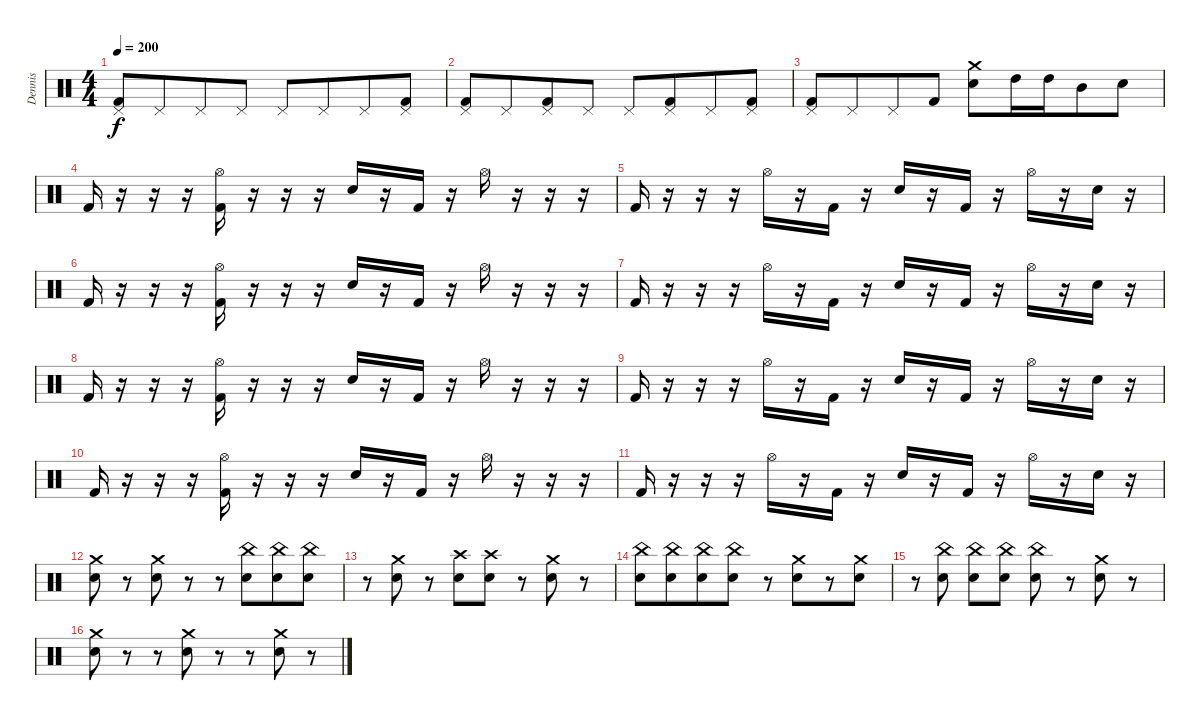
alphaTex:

\track ("Dennis" "Dennis") {instrument percussion}
\staff {score}
\articulation defaults
\ts (4 4)
\tempo 200
\clef neutral
\ks c
("Pedal Hi-Hat (hit)" "Kick (hit) 2").8{dy f} "Pedal Hi-Hat (hit)".8{beam merge} "Pedal Hi-Hat (hit)".8{beam merge} "Pedal Hi-Hat (hit)".8 "Pedal Hi-Hat (hit)".8 "Pedal Hi-Hat (hit)".8{beam merge} "Pedal Hi-Hat (hit)".8{beam merge} ("Pedal Hi-Hat (hit)" "Kick (hit) 2").8 |
("Pedal Hi-Hat (hit)" "Kick (hit) 2").8 "Pedal Hi-Hat (hit)".8{beam merge} ("Pedal Hi-Hat (hit)" "Kick (hit) 2").8{beam merge} "Pedal Hi-Hat (hit)".8 "Pedal Hi-Hat (hit)".8 ("Pedal Hi-Hat (hit)" "Kick (hit) 2").8{beam merge} "Pedal Hi-Hat (hit)".8{beam merge} ("Pedal Hi-Hat (hit)" "Kick (hit) 2").8 |
("Pedal Hi-Hat (hit)" "Kick (hit) 2").8 "Pedal Hi-Hat (hit)".8{beam merge} "Pedal Hi-Hat (hit)".8{beam merge} "Kick (hit) 2".8 ("Crash medium (hit)" "Electric Snare (hit)").8 "High Tom (hit)".16{beam merge} "High Tom (hit)".16{beam merge} "Mid Tom (hit)".8{beam merge} "Electric Snare (hit)".8 |
"Kick (hit) 2".16 r.16 r.16{beam merge} r.16 ("Hi-Hat (open)" "Kick (hit) 2").16 r.16 r.16 r.16 "Electric Snare (hit)".16 r.16 "Kick (hit) 2".16 r.16 "Hi-Hat (open)".16 r.16 r.16 r.16 |
"Kick (hit) 2".16 r.16 r.16{beam merge} r.16 "Hi-Hat (open)".16 r.16 "Kick (hit) 2".16 r.16 "Electric Snare (hit)".16 r.16 "Kick (hit) 2".16 r.16 "Hi-Hat (open)".16 r.16 "Electric Snare (hit)".16 r.16 |
"Kick (hit) 2".16 r.16 r.16{beam merge} r.16 ("Hi-Hat (open)" "Kick (hit) 2").16 r.16 r.16 r.16 "Electric Snare (hit)".16 r.16 "Kick (hit) 2".16 r.16 "Hi-Hat (open)".16 r.16 r.16 r.16 |
"Kick (hit) 2".16 r.16 r.16{beam merge} r.16 "Hi-Hat (open)".16 r.16 "Kick (hit) 2".16 r.16 "Electric Snare (hit)".16 r.16 "Kick (hit) 2".16 r.16 "Hi-Hat (open)".16 r.16 "Electric Snare (hit)".16 r.16 |
"Kick (hit) 2".16 r.16 r.16{beam merge} r.16 ("Hi-Hat (open)" "Kick (hit) 2").16 r.16 r.16 r.16 "Electric Snare (hit)".16 r.16 "Kick (hit) 2".16 r.16 "Hi-Hat (open)".16 r.16 r.16 r.16 |
"Kick (hit) 2".16 r.16 r.16{beam merge} r.16 "Hi-Hat (open)".16 r.16 "Kick (hit) 2".16 r.16 "Electric Snare (hit)".16 r.16 "Kick (hit) 2".16 r.16 "Hi-Hat (open)".16 r.16 "Electric Snare (hit)".16 r.16 |
"Kick (hit) 2".16 r.16 r.16{beam merge} r.16 ("Hi-Hat (open)" "Kick (hit) 2").16 r.16 r.16 r.16 "Electric Snare (hit)".16 r.16 "Kick (hit) 2".16 r.16 "Hi-Hat (open)".16 r.16 r.16 r.16 |
"Kick (hit) 2".16 r.16 r.16{beam merge} r.16 "Hi-Hat (open)".16 r.16 "Kick (hit) 2".16 r.16 "Electric Snare (hit)".16 r.16 "Kick (hit) 2".16 r.16 "Hi-Hat (open)".16 r.16 "Electric Snare (hit)".16 r.16 |
("Electric Snare (hit)" "Crash medium (hit)").8 r.8{beam merge} ("Electric Snare (hit)" "Crash medium (hit)").8 r.8 r.8 ("Electric Snare (hit)" "China (hit)").8{beam merge} ("Electric Snare (hit)" "China (hit)").8{beam merge} ("Electric Snare (hit)" "China (hit)").8 |
r.8{beam merge} ("Electric Snare (hit)" "Crash medium (hit)").8 r.8 ("Electric Snare (hit)" "Crash high (hit)").8{beam merge} ("Electric Snare (hit)" "Crash high (hit)").8 r.8{beam merge} ("Electric Snare (hit)" "Crash medium (hit)").8 r.8 |
("Electric Snare (hit)" "China (hit)").8 ("Electric Snare (hit)" "China (hit)").8{beam merge} ("Electric Snare (hit)" "China (hit)").8{beam merge} ("Electric Snare (hit)" "China (hit)").8 r.8 ("Electric Snare (hit)" "Crash medium (hit)").8{beam merge} r.8{beam merge} ("Electric Snare (hit)" "Crash medium (hit)").8 |
r.8 ("Electric Snare (hit)" "China (hit)").8 ("Electric Snare (hit)" "China (hit)").8 ("Electric Snare (hit)" "China (hit)").8 ("Electric Snare (hit)" "China (hit)").8 r.8 ("Electric Snare (hit)" "Crash medium (hit)").8{beam merge} r.8 |
("Electric Snare (hit)" "Crash medium (hit)").8 r.8 r.8 ("Electric Snare (hit)" "Crash medium (hit)").8 r.8 r.8{beam merge} ("Electric Snare (hit)" "Crash medium (hit)").8 r.8
